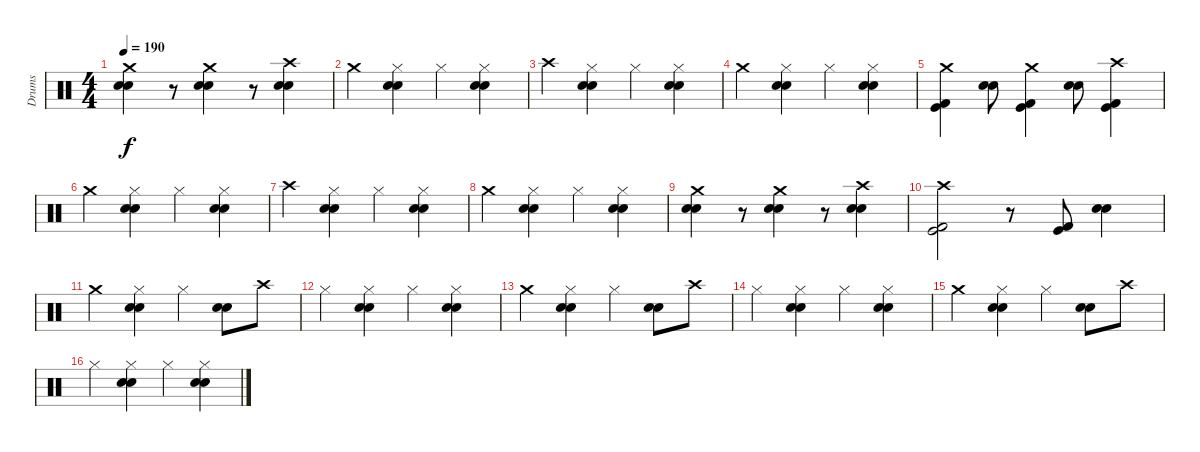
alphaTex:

\track ("Drums" "Drums") {instrument percussion}
\staff {score}
\articulation defaults
\ts (4 4)
\tempo 190
\clef neutral
\ks c
("Crash medium (hit)" "Electric Snare (hit)" "Snare (hit) 2").4{dy f} r.8 ("Crash medium (hit)" "Electric Snare (hit)" "Snare (hit) 2").4 r.8 ("Crash high (hit)" "Electric Snare (hit)" "Snare (hit) 2").4 |
"Crash medium (hit)".4 ("Hi-Hat (closed)" "Electric Snare (hit)" "Snare (hit) 2").4 "Hi-Hat (closed)".4 ("Hi-Hat (closed)" "Electric Snare (hit)" "Snare (hit) 2").4 |
"Crash high (hit)".4 ("Hi-Hat (closed)" "Electric Snare (hit)" "Snare (hit) 2").4 "Hi-Hat (closed)".4 ("Hi-Hat (closed)" "Electric Snare (hit)" "Snare (hit) 2").4 |
"Crash medium (hit)".4 ("Hi-Hat (closed)" "Electric Snare (hit)" "Snare (hit) 2").4 "Hi-Hat (closed)".4 ("Hi-Hat (closed)" "Electric Snare (hit)" "Snare (hit) 2").4 |
("Crash medium (hit)" "Kick (hit) 2" "Kick (hit)").4 ("Electric Snare (hit)" "Snare (hit) 2").8 ("Crash medium (hit)" "Kick (hit) 2" "Kick (hit)").4 ("Electric Snare (hit)" "Snare (hit) 2").8 ("Crash high (hit)" "Kick (hit) 2" "Kick (hit)").4 |
"Crash medium (hit)".4 ("Hi-Hat (closed)" "Electric Snare (hit)" "Snare (hit) 2").4 "Hi-Hat (closed)".4 ("Hi-Hat (closed)" "Electric Snare (hit)" "Snare (hit) 2").4 |
"Crash high (hit)".4 ("Hi-Hat (closed)" "Electric Snare (hit)" "Snare (hit) 2").4 "Hi-Hat (closed)".4 ("Hi-Hat (closed)" "Electric Snare (hit)" "Snare (hit) 2").4 |
"Crash medium (hit)".4 ("Hi-Hat (closed)" "Electric Snare (hit)" "Snare (hit) 2").4 "Hi-Hat (closed)".4 ("Hi-Hat (closed)" "Electric Snare (hit)" "Snare (hit) 2").4 |
("Crash medium (hit)" "Electric Snare (hit)" "Snare (hit) 2").4 r.8 ("Crash medium (hit)" "Electric Snare (hit)" "Snare (hit) 2").4 r.8 ("Crash high (hit)" "Electric Snare (hit)" "Snare (hit) 2").4 |
("Crash high (hit)" "Kick (hit) 2" "Kick (hit)").2 r.8 ("Kick (hit) 2" "Kick (hit)").8 ("Electric Snare (hit)" "Snare (hit) 2").4 |
"Crash medium (hit)".4 ("Hi-Hat (closed)" "Electric Snare (hit)" "Snare (hit) 2").4 "Hi-Hat (closed)".4 ("Electric Snare (hit)" "Snare (hit) 2").8 "Crash high (hit)".8 |
"Hi-Hat (closed)".4 ("Hi-Hat (closed)" "Electric Snare (hit)" "Snare (hit) 2").4 "Hi-Hat (closed)".4 ("Hi-Hat (closed)" "Electric Snare (hit)" "Snare (hit) 2").4 |
"Crash medium (hit)".4 ("Hi-Hat (closed)" "Electric Snare (hit)" "Snare (hit) 2").4 "Hi-Hat (closed)".4 ("Electric Snare (hit)" "Snare (hit) 2").8 "Crash high (hit)".8 |
"Hi-Hat (closed)".4 ("Hi-Hat (closed)" "Electric Snare (hit)" "Snare (hit) 2").4 "Hi-Hat (closed)".4 ("Hi-Hat (closed)" "Electric Snare (hit)" "Snare (hit) 2").4 |
"Crash medium (hit)".4 ("Hi-Hat (closed)" "Electric Snare (hit)" "Snare (hit) 2").4 "Hi-Hat (closed)".4 ("Electric Snare (hit)" "Snare (hit) 2").8 "Crash high (hit)".8 |
"Hi-Hat (closed)".4 ("Hi-Hat (closed)" "Electric Snare (hit)" "Snare (hit) 2").4 "Hi-Hat (closed)".4 ("Hi-Hat (closed)" "Electric Snare (hit)" "Snare (hit) 2").4
